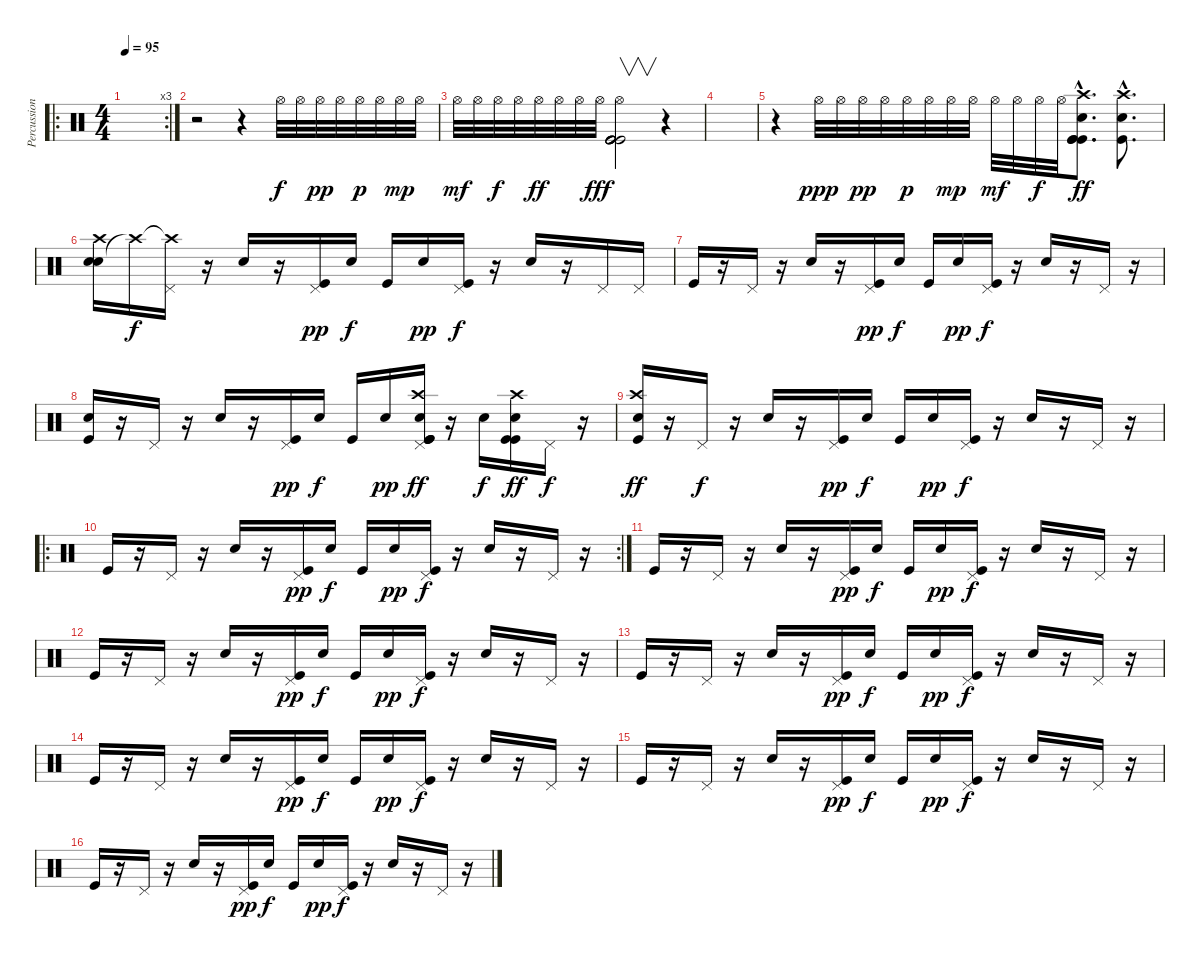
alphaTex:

\track ("Percussioni" "Percussion") {instrument percussion}
\staff {score}
\articulation defaults
\ro
\rc 3
\ts (4 4)
\tempo 95
\clef neutral
\ks c
|
r.2 r.4 "Hi-Hat (open)".32 "Hi-Hat (open)".32 "Hi-Hat (open)".32{dy pp} "Hi-Hat (open)".32 "Hi-Hat (open)".32{dy p} "Hi-Hat (open)".32 "Hi-Hat (open)".32{dy mp} "Hi-Hat (open)".32 |
"Hi-Hat (open)".32{dy mf} "Hi-Hat (open)".32 "Hi-Hat (open)".32{dy f} "Hi-Hat (open)".32 "Hi-Hat (open)".32{dy ff} "Hi-Hat (open)".32 "Hi-Hat (open)".32 "Hi-Hat (open)".32{dy fff} ("Hi-Hat (open)" "Kick (hit)" "Kick (hit)" "Kick (hit)" "Kick (hit)" "Kick (hit)").2{v} r.4 |
|
r.4 "Hi-Hat (open)".32{dy ppp} "Hi-Hat (open)".32 "Hi-Hat (open)".32{dy pp} "Hi-Hat (open)".32 "Hi-Hat (open)".32{dy p} "Hi-Hat (open)".32 "Hi-Hat (open)".32{dy mp} "Hi-Hat (open)".32 "Hi-Hat (open)".32{dy mf} "Hi-Hat (open)".32 "Hi-Hat (open)".32{dy f} "Hi-Hat (open)".32 ("Kick (hit)"{hac} "Snare (hit) 2"{hac} "Crash high (hit)"{hac} "Kick (hit)"{hac} "Kick (hit)"{hac}).8{d dy ff} ("Kick (hit)"{hac} "Snare (hit) 2"{hac} "Crash high (hit)"{hac}).8{d} |
("Snare (hit) 2" "Electric Snare (hit)" "Crash high (hit)").16 "Crash high (hit)"{t}.16{dy f} ("Crash high (hit)"{t} "Pedal Hi-Hat (hit)").16 r.16 "Electric Snare (hit)".16 r.16 ("Kick (hit)" "Pedal Hi-Hat (hit)").16{dy pp} "Electric Snare (hit)".16{dy f} "Kick (hit)".16 "Snare (hit) 2".16{dy pp} ("Kick (hit)" "Pedal Hi-Hat (hit)").16{dy f} r.16 "Electric Snare (hit)".16 r.16 "Pedal Hi-Hat (hit)".16 "Pedal Hi-Hat (hit)".16 |
"Kick (hit)".16 r.16 "Pedal Hi-Hat (hit)".16 r.16 "Electric Snare (hit)".16 r.16 ("Kick (hit)" "Pedal Hi-Hat (hit)").16{dy pp} "Electric Snare (hit)".16{dy f} "Kick (hit)".16 "Snare (hit) 2".16{dy pp} ("Kick (hit)" "Pedal Hi-Hat (hit)").16{dy f} r.16 "Electric Snare (hit)".16 r.16 "Pedal Hi-Hat (hit)".16 r.16 |
("Kick (hit)" "Electric Snare (hit)").16 r.16 "Pedal Hi-Hat (hit)".16 r.16 "Electric Snare (hit)".16 r.16 ("Kick (hit)" "Pedal Hi-Hat (hit)").16{dy pp} "Electric Snare (hit)".16{dy f} "Kick (hit)".16 "Snare (hit) 2".16{dy pp} ("Crash high (hit)" "Snare (hit) 2" "Kick (hit)" "Kick (hit)" "Pedal Hi-Hat (hit)" "Kick (hit)").16{dy ff} r.16 "Electric Snare (hit)".16{dy f} ("Crash high (hit)" "Snare (hit) 2" "Kick (hit)" "Kick (hit)").16{dy ff} "Pedal Hi-Hat (hit)".16{dy f} r.16 |
("Crash high (hit)" "Kick (hit)" "Electric Snare (hit)").16{dy ff} r.16 "Pedal Hi-Hat (hit)".16{dy f} r.16 "Electric Snare (hit)".16 r.16 ("Kick (hit)" "Pedal Hi-Hat (hit)").16{dy pp} "Electric Snare (hit)".16{dy f} "Kick (hit)".16 "Snare (hit) 2".16{dy pp} ("Kick (hit)" "Pedal Hi-Hat (hit)").16{dy f} r.16 "Electric Snare (hit)".16 r.16 "Pedal Hi-Hat (hit)".16 r.16 |
\ro
\rc 2 "Kick (hit)".16
r.16 "Pedal Hi-Hat (hit)".16 r.16 "Electric Snare (hit)".16 r.16 ("Kick (hit)" "Pedal Hi-Hat (hit)").16{dy pp} "Electric Snare (hit)".16{dy f} "Kick (hit)".16 "Snare (hit) 2".16{dy pp} ("Kick (hit)" "Pedal Hi-Hat (hit)").16{dy f} r.16 "Electric Snare (hit)".16 r.16 "Pedal Hi-Hat (hit)".16 r.16 |
"Kick (hit)".16 r.16 "Pedal Hi-Hat (hit)".16 r.16 "Electric Snare (hit)".16 r.16 ("Kick (hit)" "Pedal Hi-Hat (hit)").16{dy pp} "Electric Snare (hit)".16{dy f} "Kick (hit)".16 "Snare (hit) 2".16{dy pp} ("Kick (hit)" "Pedal Hi-Hat (hit)").16{dy f} r.16 "Electric Snare (hit)".16 r.16 "Pedal Hi-Hat (hit)".16 r.16 |
"Kick (hit)".16 r.16 "Pedal Hi-Hat (hit)".16 r.16 "Electric Snare (hit)".16 r.16 ("Kick (hit)" "Pedal Hi-Hat (hit)").16{dy pp} "Electric Snare (hit)".16{dy f} "Kick (hit)".16 "Snare (hit) 2".16{dy pp} ("Kick (hit)" "Pedal Hi-Hat (hit)").16{dy f} r.16 "Electric Snare (hit)".16 r.16 "Pedal Hi-Hat (hit)".16 r.16 |
"Kick (hit)".16 r.16 "Pedal Hi-Hat (hit)".16 r.16 "Electric Snare (hit)".16 r.16 ("Kick (hit)" "Pedal Hi-Hat (hit)").16{dy pp} "Electric Snare (hit)".16{dy f} "Kick (hit)".16 "Snare (hit) 2".16{dy pp} ("Kick (hit)" "Pedal Hi-Hat (hit)").16{dy f} r.16 "Electric Snare (hit)".16 r.16 "Pedal Hi-Hat (hit)".16 r.16 |
"Kick (hit)".16 r.16 "Pedal Hi-Hat (hit)".16 r.16 "Electric Snare (hit)".16 r.16 ("Kick (hit)" "Pedal Hi-Hat (hit)").16{dy pp} "Electric Snare (hit)".16{dy f} "Kick (hit)".16 "Snare (hit) 2".16{dy pp} ("Kick (hit)" "Pedal Hi-Hat (hit)").16{dy f} r.16 "Electric Snare (hit)".16 r.16 "Pedal Hi-Hat (hit)".16 r.16 |
"Kick (hit)".16 r.16 "Pedal Hi-Hat (hit)".16 r.16 "Electric Snare (hit)".16 r.16 ("Kick (hit)" "Pedal Hi-Hat (hit)").16{dy pp} "Electric Snare (hit)".16{dy f} "Kick (hit)".16 "Snare (hit) 2".16{dy pp} ("Kick (hit)" "Pedal Hi-Hat (hit)").16{dy f} r.16 "Electric Snare (hit)".16 r.16 "Pedal Hi-Hat (hit)".16 r.16 |
"Kick (hit)".16 r.16 "Pedal Hi-Hat (hit)".16 r.16 "Snare (hit) 2".16 r.16 ("Kick (hit)" "Pedal Hi-Hat (hit)").16{dy pp} "Snare (hit) 2".16{dy f} "Kick (hit)".16 "Snare (hit) 2".16{dy pp} ("Kick (hit)" "Pedal Hi-Hat (hit)").16{dy f} r.16 "Snare (hit) 2".16 r.16 "Pedal Hi-Hat (hit)".16 r.16
